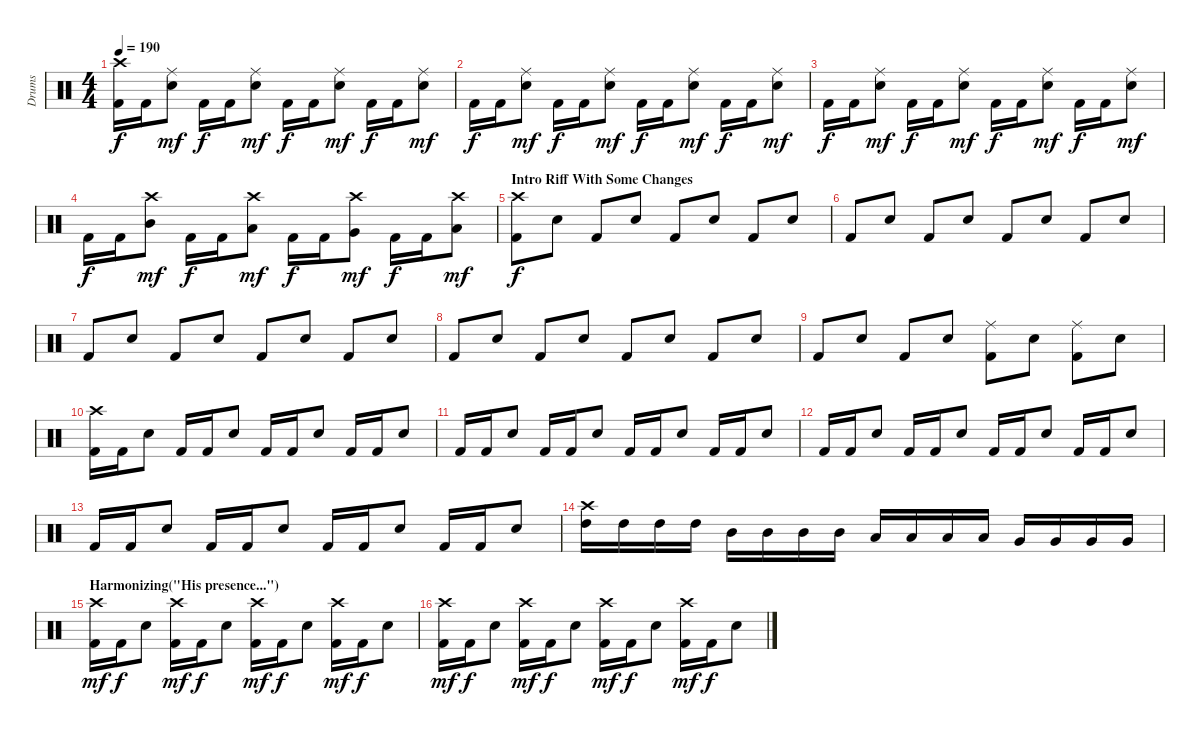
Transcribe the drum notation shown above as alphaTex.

\track ("Drums" "Drums") {instrument percussion}
\staff {score}
\articulation defaults
\ts (4 4)
\tempo 190
\clef neutral
\ks c
("Crash high (hit)" "Kick (hit) 2").16{dy f} "Kick (hit) 2".16 ("Ride (middle)" "Snare (hit) 2").8{dy mf} "Kick (hit) 2".16{dy f} "Kick (hit) 2".16 ("Ride (middle)" "Snare (hit) 2").8{dy mf} "Kick (hit) 2".16{dy f} "Kick (hit) 2".16 ("Ride (middle)" "Snare (hit) 2").8{dy mf} "Kick (hit) 2".16{dy f} "Kick (hit) 2".16 ("Ride (middle)" "Snare (hit) 2").8{dy mf} |
"Kick (hit) 2".16{dy f} "Kick (hit) 2".16 ("Ride (middle)" "Snare (hit) 2").8{dy mf} "Kick (hit) 2".16{dy f} "Kick (hit) 2".16 ("Ride (middle)" "Snare (hit) 2").8{dy mf} "Kick (hit) 2".16{dy f} "Kick (hit) 2".16 ("Ride (middle)" "Snare (hit) 2").8{dy mf} "Kick (hit) 2".16{dy f} "Kick (hit) 2".16 ("Ride (middle)" "Snare (hit) 2").8{dy mf} |
"Kick (hit) 2".16{dy f} "Kick (hit) 2".16 ("Ride (middle)" "Snare (hit) 2").8{dy mf} "Kick (hit) 2".16{dy f} "Kick (hit) 2".16 ("Ride (middle)" "Snare (hit) 2").8{dy mf} "Kick (hit) 2".16{dy f} "Kick (hit) 2".16 ("Ride (middle)" "Snare (hit) 2").8{dy mf} "Kick (hit) 2".16{dy f} "Kick (hit) 2".16 ("Ride (middle)" "Snare (hit) 2").8{dy mf} |
"Kick (hit) 2".16{dy f} "Kick (hit) 2".16 ("Crash high (hit)" "Mid Tom (hit)").8{dy mf} "Kick (hit) 2".16{dy f} "Kick (hit) 2".16 ("Crash high (hit)" "Low Tom (hit)").8{dy mf} "Kick (hit) 2".16{dy f} "Kick (hit) 2".16 ("Crash high (hit)" "Very Low Tom (hit)").8{dy mf} "Kick (hit) 2".16{dy f} "Kick (hit) 2".16 ("Crash high (hit)" "Low Floor Tom (hit)").8{dy mf} |
\section ("" "Intro Riff With Some Changes")
("Crash high (hit)" "Kick (hit) 2").8{dy f} "Snare (hit) 2".8 "Kick (hit) 2".8 "Snare (hit) 2".8 "Kick (hit) 2".8 "Snare (hit) 2".8 "Kick (hit) 2".8 "Snare (hit) 2".8 |
"Kick (hit) 2".8 "Snare (hit) 2".8 "Kick (hit) 2".8 "Snare (hit) 2".8 "Kick (hit) 2".8 "Snare (hit) 2".8 "Kick (hit) 2".8 "Snare (hit) 2".8 |
"Kick (hit) 2".8 "Snare (hit) 2".8 "Kick (hit) 2".8 "Snare (hit) 2".8 "Kick (hit) 2".8 "Snare (hit) 2".8 "Kick (hit) 2".8 "Snare (hit) 2".8 |
"Kick (hit) 2".8 "Snare (hit) 2".8 "Kick (hit) 2".8 "Snare (hit) 2".8 "Kick (hit) 2".8 "Snare (hit) 2".8 "Kick (hit) 2".8 "Snare (hit) 2".8 |
"Kick (hit) 2".8 "Snare (hit) 2".8 "Kick (hit) 2".8 "Snare (hit) 2".8 ("Ride (middle)" "Kick (hit) 2").8 "Snare (hit) 2".8 ("Ride (middle)" "Kick (hit) 2").8 "Snare (hit) 2".8 |
("Crash high (hit)" "Kick (hit) 2").16 "Kick (hit) 2".16 "Snare (hit) 2".8 "Kick (hit) 2".16 "Kick (hit) 2".16 "Snare (hit) 2".8 "Kick (hit) 2".16 "Kick (hit) 2".16 "Snare (hit) 2".8 "Kick (hit) 2".16 "Kick (hit) 2".16 "Snare (hit) 2".8 |
"Kick (hit) 2".16 "Kick (hit) 2".16 "Snare (hit) 2".8 "Kick (hit) 2".16 "Kick (hit) 2".16 "Snare (hit) 2".8 "Kick (hit) 2".16 "Kick (hit) 2".16 "Snare (hit) 2".8 "Kick (hit) 2".16 "Kick (hit) 2".16 "Snare (hit) 2".8 |
"Kick (hit) 2".16 "Kick (hit) 2".16 "Snare (hit) 2".8 "Kick (hit) 2".16 "Kick (hit) 2".16 "Snare (hit) 2".8 "Kick (hit) 2".16 "Kick (hit) 2".16 "Snare (hit) 2".8 "Kick (hit) 2".16 "Kick (hit) 2".16 "Snare (hit) 2".8 |
"Kick (hit) 2".16 "Kick (hit) 2".16 "Snare (hit) 2".8 "Kick (hit) 2".16 "Kick (hit) 2".16 "Snare (hit) 2".8 "Kick (hit) 2".16 "Kick (hit) 2".16 "Snare (hit) 2".8 "Kick (hit) 2".16 "Kick (hit) 2".16 "Snare (hit) 2".8 |
("Crash high (hit)" "High Tom (hit)").16 "High Tom (hit)".16 "High Tom (hit)".16 "High Tom (hit)".16 "Mid Tom (hit)".16 "Mid Tom (hit)".16 "Mid Tom (hit)".16 "Mid Tom (hit)".16 "Low Tom (hit)".16 "Low Tom (hit)".16 "Low Tom (hit)".16 "Low Tom (hit)".16 "Very Low Tom (hit)".16 "Very Low Tom (hit)".16 "Very Low Tom (hit)".16 "Very Low Tom (hit)".16 |
\section ("" "Harmonizing(\"His presence...\")")
("Crash high (hit)" "Kick (hit) 2").16{dy mf} "Kick (hit) 2".16{dy f} "Snare (hit) 2".8 ("Crash high (hit)" "Kick (hit) 2").16{dy mf} "Kick (hit) 2".16{dy f} "Snare (hit) 2".8 ("Crash high (hit)" "Kick (hit) 2").16{dy mf} "Kick (hit) 2".16{dy f} "Snare (hit) 2".8 ("Crash high (hit)" "Kick (hit) 2").16{dy mf} "Kick (hit) 2".16{dy f} "Snare (hit) 2".8 |
("Crash high (hit)" "Kick (hit) 2").16{dy mf} "Kick (hit) 2".16{dy f} "Snare (hit) 2".8 ("Crash high (hit)" "Kick (hit) 2").16{dy mf} "Kick (hit) 2".16{dy f} "Snare (hit) 2".8 ("Crash high (hit)" "Kick (hit) 2").16{dy mf} "Kick (hit) 2".16{dy f} "Snare (hit) 2".8 ("Crash high (hit)" "Kick (hit) 2").16{dy mf} "Kick (hit) 2".16{dy f} "Snare (hit) 2".8
